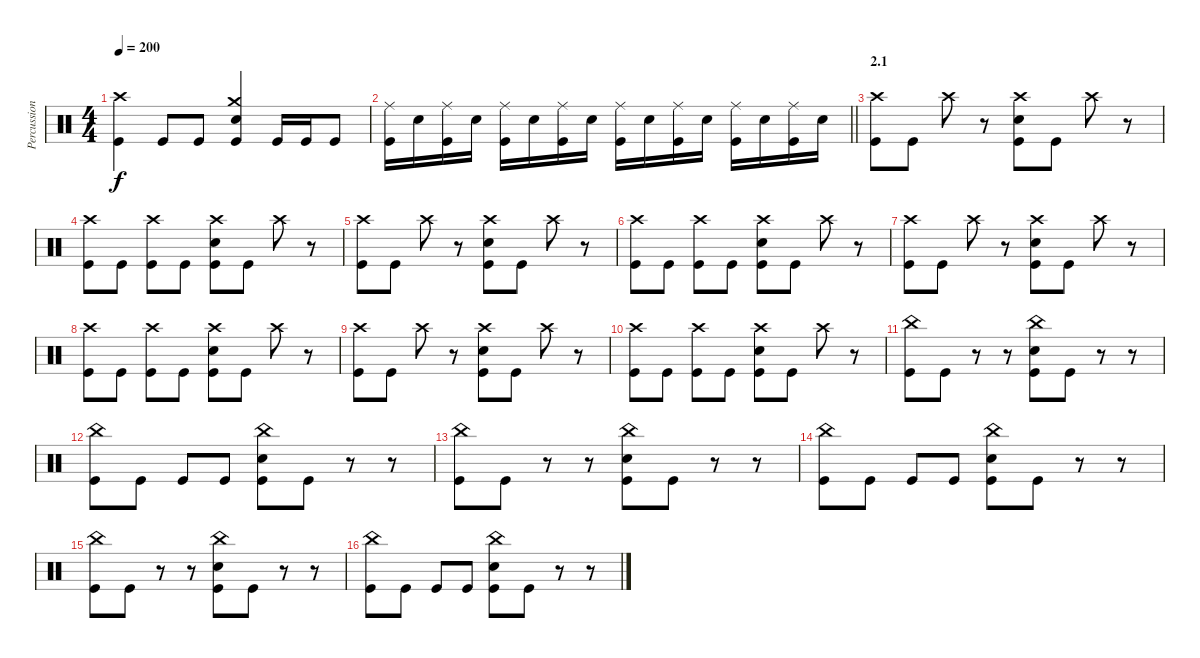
\track ("Percussion" "Percussion") {instrument percussion}
\staff {score}
\articulation defaults
\ts (4 4)
\tempo 200
\clef neutral
\ks c
("Crash high (hit)" "Kick (hit)").4{dy f} "Kick (hit)".8 "Kick (hit)".8 ("Crash medium (hit)" "Snare (hit) 2" "Kick (hit)").4 "Kick (hit)".16 "Kick (hit)".16 "Kick (hit)".8 |
\barLineRight lightlight
("Ride (middle)" "Kick (hit)").16 "Snare (hit) 2".16 ("Ride (middle)" "Kick (hit)").16 "Snare (hit) 2".16 ("Ride (middle)" "Kick (hit)").16 "Snare (hit) 2".16 ("Ride (middle)" "Kick (hit)").16 "Snare (hit) 2".16 ("Ride (middle)" "Kick (hit)").16 "Snare (hit) 2".16 ("Ride (middle)" "Kick (hit)").16 "Snare (hit) 2".16 ("Ride (middle)" "Kick (hit)").16 "Snare (hit) 2".16 ("Ride (middle)" "Kick (hit)").16 "Snare (hit) 2".16 |
\section ("" "2.1")
("Crash high (hit)" "Kick (hit)").8 "Kick (hit)".8 "Crash high (hit)".8 r.8 ("Crash high (hit)" "Snare (hit) 2" "Kick (hit)").8 "Kick (hit)".8 "Crash high (hit)".8 r.8 |
("Crash high (hit)" "Kick (hit)").8 "Kick (hit)".8 ("Crash high (hit)" "Kick (hit)").8 "Kick (hit)".8 ("Crash high (hit)" "Snare (hit) 2" "Kick (hit)").8 "Kick (hit)".8 "Crash high (hit)".8 r.8 |
("Crash high (hit)" "Kick (hit)").8 "Kick (hit)".8 "Crash high (hit)".8 r.8 ("Crash high (hit)" "Snare (hit) 2" "Kick (hit)").8 "Kick (hit)".8 "Crash high (hit)".8 r.8 |
("Crash high (hit)" "Kick (hit)").8 "Kick (hit)".8 ("Crash high (hit)" "Kick (hit)").8 "Kick (hit)".8 ("Crash high (hit)" "Snare (hit) 2" "Kick (hit)").8 "Kick (hit)".8 "Crash high (hit)".8 r.8 |
("Crash high (hit)" "Kick (hit)").8 "Kick (hit)".8 "Crash high (hit)".8 r.8 ("Crash high (hit)" "Snare (hit) 2" "Kick (hit)").8 "Kick (hit)".8 "Crash high (hit)".8 r.8 |
("Crash high (hit)" "Kick (hit)").8 "Kick (hit)".8 ("Crash high (hit)" "Kick (hit)").8 "Kick (hit)".8 ("Crash high (hit)" "Snare (hit) 2" "Kick (hit)").8 "Kick (hit)".8 "Crash high (hit)".8 r.8 |
("Crash high (hit)" "Kick (hit)").8 "Kick (hit)".8 "Crash high (hit)".8 r.8 ("Crash high (hit)" "Snare (hit) 2" "Kick (hit)").8 "Kick (hit)".8 "Crash high (hit)".8 r.8 |
("Crash high (hit)" "Kick (hit)").8 "Kick (hit)".8 ("Crash high (hit)" "Kick (hit)").8 "Kick (hit)".8 ("Crash high (hit)" "Snare (hit) 2" "Kick (hit)").8 "Kick (hit)".8 "Crash high (hit)".8 r.8 |
("China (hit)" "Kick (hit)").8 "Kick (hit)".8 r.8 r.8 ("China (hit)" "Snare (hit) 2" "Kick (hit)").8 "Kick (hit)".8 r.8 r.8 |
("China (hit)" "Kick (hit)").8 "Kick (hit)".8 "Kick (hit)".8 "Kick (hit)".8 ("China (hit)" "Snare (hit) 2" "Kick (hit)").8 "Kick (hit)".8 r.8 r.8 |
("China (hit)" "Kick (hit)").8 "Kick (hit)".8 r.8 r.8 ("China (hit)" "Snare (hit) 2" "Kick (hit)").8 "Kick (hit)".8 r.8 r.8 |
("China (hit)" "Kick (hit)").8 "Kick (hit)".8 "Kick (hit)".8 "Kick (hit)".8 ("China (hit)" "Snare (hit) 2" "Kick (hit)").8 "Kick (hit)".8 r.8 r.8 |
("China (hit)" "Kick (hit)").8 "Kick (hit)".8 r.8 r.8 ("China (hit)" "Snare (hit) 2" "Kick (hit)").8 "Kick (hit)".8 r.8 r.8 |
("China (hit)" "Kick (hit)").8 "Kick (hit)".8 "Kick (hit)".8 "Kick (hit)".8 ("China (hit)" "Snare (hit) 2" "Kick (hit)").8 "Kick (hit)".8 r.8 r.8
